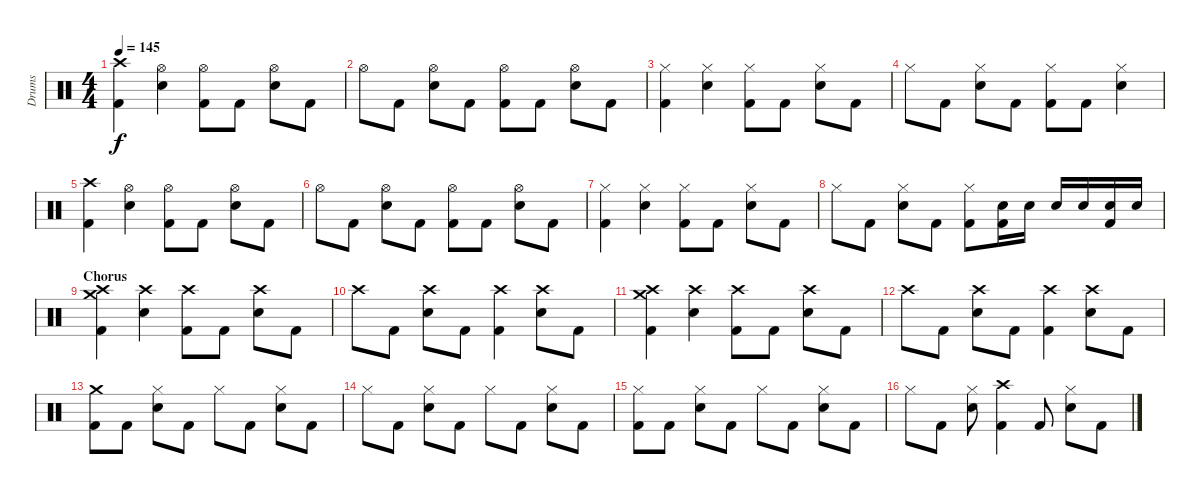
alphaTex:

\track ("Drums" "Drums") {instrument percussion}
\staff {score}
\articulation defaults
\ts (4 4)
\tempo 145
\clef neutral
\ks c
("Crash high (hit)" "Kick (hit) 2").4{dy f} ("Hi-Hat (open)" "Snare (hit) 2").4 ("Hi-Hat (open)" "Kick (hit) 2").8 "Kick (hit) 2".8 ("Hi-Hat (open)" "Snare (hit) 2").8 "Kick (hit) 2".8 |
"Hi-Hat (open)".8 "Kick (hit) 2".8 ("Hi-Hat (open)" "Snare (hit) 2").8 "Kick (hit) 2".8 ("Hi-Hat (open)" "Kick (hit) 2").8 "Kick (hit) 2".8 ("Hi-Hat (open)" "Snare (hit) 2").8 "Kick (hit) 2".8 |
("Hi-Hat (closed)" "Kick (hit) 2").4 ("Hi-Hat (closed)" "Snare (hit) 2").4 ("Hi-Hat (closed)" "Kick (hit) 2").8 "Kick (hit) 2".8 ("Hi-Hat (closed)" "Snare (hit) 2").8 "Kick (hit) 2".8 |
"Hi-Hat (closed)".8 "Kick (hit) 2".8 ("Hi-Hat (closed)" "Snare (hit) 2").8 "Kick (hit) 2".8 ("Hi-Hat (closed)" "Kick (hit) 2").8 "Kick (hit) 2".8 ("Hi-Hat (closed)" "Snare (hit) 2").4 |
("Crash high (hit)" "Kick (hit) 2").4 ("Hi-Hat (open)" "Snare (hit) 2").4 ("Hi-Hat (open)" "Kick (hit) 2").8 "Kick (hit) 2".8 ("Hi-Hat (open)" "Snare (hit) 2").8 "Kick (hit) 2".8 |
"Hi-Hat (open)".8 "Kick (hit) 2".8 ("Hi-Hat (open)" "Snare (hit) 2").8 "Kick (hit) 2".8 ("Hi-Hat (open)" "Kick (hit) 2").8 "Kick (hit) 2".8 ("Hi-Hat (open)" "Snare (hit) 2").8 "Kick (hit) 2".8 |
("Hi-Hat (closed)" "Kick (hit) 2").4 ("Hi-Hat (closed)" "Snare (hit) 2").4 ("Hi-Hat (closed)" "Kick (hit) 2").8 "Kick (hit) 2".8 ("Hi-Hat (closed)" "Snare (hit) 2").8 "Kick (hit) 2".8 |
"Hi-Hat (closed)".8 "Kick (hit) 2".8 ("Hi-Hat (closed)" "Snare (hit) 2").8 "Kick (hit) 2".8 ("Hi-Hat (closed)" "Kick (hit) 2").8 ("Snare (hit) 2" "Kick (hit) 2").16 "Snare (hit) 2".16 "Snare (hit) 2".16 "Snare (hit) 2".16 ("Snare (hit) 2" "Kick (hit) 2").16 "Snare (hit) 2".16 |
\section ("" "Chorus")
("Crash high (hit)" "Crash medium (hit)" "Kick (hit) 2").4 ("Crash high (hit)" "Snare (hit) 2").4 ("Crash high (hit)" "Kick (hit) 2").8 "Kick (hit) 2".8 ("Crash high (hit)" "Snare (hit) 2").8 "Kick (hit) 2".8 |
"Crash high (hit)".8 "Kick (hit) 2".8 ("Crash high (hit)" "Snare (hit) 2").8 "Kick (hit) 2".8 ("Crash high (hit)" "Kick (hit) 2").4 ("Crash high (hit)" "Snare (hit) 2").8 "Kick (hit) 2".8 |
("Crash high (hit)" "Crash medium (hit)" "Kick (hit) 2").4 ("Crash high (hit)" "Snare (hit) 2").4 ("Crash high (hit)" "Kick (hit) 2").8 "Kick (hit) 2".8 ("Crash high (hit)" "Snare (hit) 2").8 "Kick (hit) 2".8 |
"Crash high (hit)".8 "Kick (hit) 2".8 ("Crash high (hit)" "Snare (hit) 2").8 "Kick (hit) 2".8 ("Crash high (hit)" "Kick (hit) 2").4 ("Crash high (hit)" "Snare (hit) 2").8 "Kick (hit) 2".8 |
("Crash medium (hit)" "Kick (hit) 2").8 "Kick (hit) 2".8 ("Hi-Hat (closed)" "Snare (hit) 2").8 "Kick (hit) 2".8 "Hi-Hat (closed)".8 "Kick (hit) 2".8 ("Hi-Hat (closed)" "Snare (hit) 2").8 "Kick (hit) 2".8 |
"Hi-Hat (closed)".8 "Kick (hit) 2".8 ("Hi-Hat (closed)" "Snare (hit) 2").8 "Kick (hit) 2".8 "Hi-Hat (closed)".8 "Kick (hit) 2".8 ("Hi-Hat (closed)" "Snare (hit) 2").8 "Kick (hit) 2".8 |
("Hi-Hat (closed)" "Kick (hit) 2").8 "Kick (hit) 2".8 ("Hi-Hat (closed)" "Snare (hit) 2").8 "Kick (hit) 2".8 "Hi-Hat (closed)".8 "Kick (hit) 2".8 ("Hi-Hat (closed)" "Snare (hit) 2").8 "Kick (hit) 2".8 |
"Hi-Hat (closed)".8 "Kick (hit) 2".8 ("Hi-Hat (closed)" "Snare (hit) 2").8 ("Crash high (hit)" "Kick (hit) 2").4 "Kick (hit) 2".8 ("Hi-Hat (closed)" "Snare (hit) 2").8 "Kick (hit) 2".8
